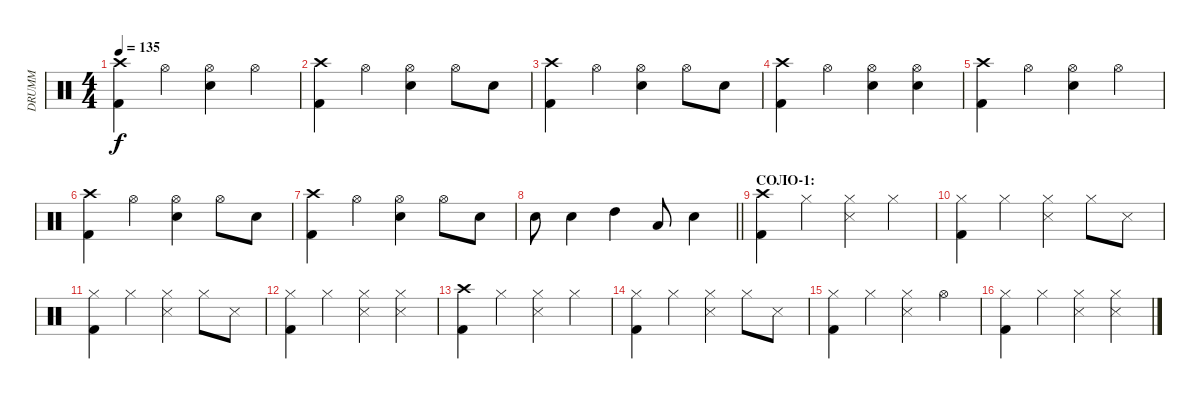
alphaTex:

\track ("DRUMM" "DRUMM") {instrument percussion}
\staff {score}
\articulation defaults
\ts (4 4)
\tempo 135
\clef neutral
\ks c
("Crash high (hit)" "Kick (hit) 2").4{dy f} "Hi-Hat (open)".4 ("Hi-Hat (open)" "Electric Snare (hit)").4 "Hi-Hat (open)".4 |
("Crash high (hit)" "Kick (hit) 2").4 "Hi-Hat (open)".4 ("Hi-Hat (open)" "Electric Snare (hit)").4 "Hi-Hat (open)".8 "Electric Snare (hit)".8 |
("Crash high (hit)" "Kick (hit) 2").4 "Hi-Hat (open)".4 ("Hi-Hat (open)" "Electric Snare (hit)").4 "Hi-Hat (open)".8 "Electric Snare (hit)".8 |
("Crash high (hit)" "Kick (hit) 2").4 "Hi-Hat (open)".4 ("Hi-Hat (open)" "Electric Snare (hit)").4 ("Electric Snare (hit)" "Hi-Hat (open)").4 |
("Crash high (hit)" "Kick (hit) 2").4 "Hi-Hat (open)".4 ("Hi-Hat (open)" "Electric Snare (hit)").4 "Hi-Hat (open)".4 |
("Crash high (hit)" "Kick (hit) 2").4 "Hi-Hat (open)".4 ("Hi-Hat (open)" "Electric Snare (hit)").4 "Hi-Hat (open)".8 "Electric Snare (hit)".8 |
("Crash high (hit)" "Kick (hit) 2").4 "Hi-Hat (open)".4 ("Hi-Hat (open)" "Electric Snare (hit)").4 "Hi-Hat (open)".8 "Electric Snare (hit)".8 |
\barLineRight lightlight "Electric Snare (hit)".8 "Electric Snare (hit)".4 "High Tom (hit)".4 "Low Tom (hit)".8 "Electric Snare (hit)".4
|
\section ("" "СОЛО-1:")
("Crash high (hit)" "Kick (hit) 2").4 "Hi-Hat (closed)".4 ("Hi-Hat (closed)" "Snare (side stick) 3").4 "Hi-Hat (closed)".4 |
("Hi-Hat (closed)" "Kick (hit) 2").4 "Hi-Hat (closed)".4 ("Hi-Hat (closed)" "Snare (side stick) 3").4 "Hi-Hat (closed)".8 "Snare (side stick) 3".8 |
("Hi-Hat (closed)" "Kick (hit) 2").4 "Hi-Hat (closed)".4 ("Hi-Hat (closed)" "Snare (side stick) 3").4 "Hi-Hat (closed)".8 "Snare (side stick) 3".8 |
("Hi-Hat (closed)" "Kick (hit) 2").4 "Hi-Hat (closed)".4 ("Hi-Hat (closed)" "Snare (side stick) 3").4 ("Hi-Hat (closed)" "Snare (side stick) 3").4 |
("Crash high (hit)" "Kick (hit) 2").4 "Hi-Hat (closed)".4 ("Hi-Hat (closed)" "Snare (side stick) 3").4 "Hi-Hat (closed)".4 |
("Hi-Hat (closed)" "Kick (hit) 2").4 "Hi-Hat (closed)".4 ("Hi-Hat (closed)" "Snare (side stick) 3").4 "Hi-Hat (closed)".8 "Snare (side stick) 3".8 |
("Hi-Hat (closed)" "Kick (hit) 2").4 "Hi-Hat (closed)".4 ("Hi-Hat (closed)" "Snare (side stick) 3").4 "Hi-Hat (open)".4 |
("Hi-Hat (closed)" "Kick (hit) 2").4 "Hi-Hat (closed)".4 ("Hi-Hat (closed)" "Snare (side stick) 3").4 ("Hi-Hat (closed)" "Snare (side stick) 3").4
